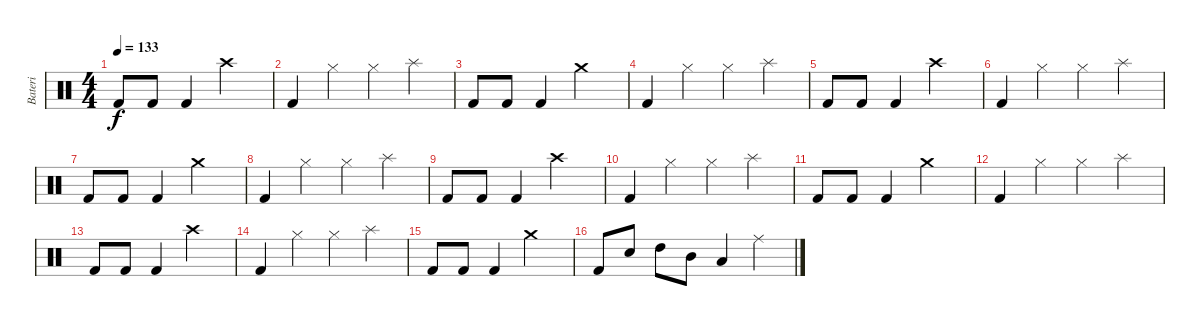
\track ("Bateri" "Bateri") {instrument percussion}
\staff {score}
\articulation defaults
\ts (4 4)
\tempo 133
\clef neutral
\ks c "Kick (hit) 2".8{dy f} "Kick (hit) 2".8 "Kick (hit) 2".4 "Crash high (hit)".2
|
"Kick (hit) 2".4 "Hi-Hat (closed)".4 "Hi-Hat (closed)".4 "Splash (hit)".4 |
"Kick (hit) 2".8 "Kick (hit) 2".8 "Kick (hit) 2".4 "Crash medium (hit)".2 |
"Kick (hit) 2".4 "Hi-Hat (closed)".4 "Hi-Hat (closed)".4 "Splash (hit)".4 |
"Kick (hit) 2".8 "Kick (hit) 2".8 "Kick (hit) 2".4 "Crash high (hit)".2 |
"Kick (hit) 2".4 "Hi-Hat (closed)".4 "Hi-Hat (closed)".4 "Splash (hit)".4 |
"Kick (hit) 2".8 "Kick (hit) 2".8 "Kick (hit) 2".4 "Crash medium (hit)".2 |
"Kick (hit) 2".4 "Hi-Hat (closed)".4 "Hi-Hat (closed)".4 "Splash (hit)".4 |
"Kick (hit) 2".8 "Kick (hit) 2".8 "Kick (hit) 2".4 "Crash high (hit)".2 |
"Kick (hit) 2".4 "Hi-Hat (closed)".4 "Hi-Hat (closed)".4 "Splash (hit)".4 |
"Kick (hit) 2".8 "Kick (hit) 2".8 "Kick (hit) 2".4 "Crash medium (hit)".2 |
"Kick (hit) 2".4 "Hi-Hat (closed)".4 "Hi-Hat (closed)".4 "Splash (hit)".4 |
"Kick (hit) 2".8 "Kick (hit) 2".8 "Kick (hit) 2".4 "Crash high (hit)".2 |
"Kick (hit) 2".4 "Hi-Hat (closed)".4 "Hi-Hat (closed)".4 "Splash (hit)".4 |
"Kick (hit) 2".8 "Kick (hit) 2".8 "Kick (hit) 2".4 "Crash medium (hit)".2 |
"Kick (hit) 2".8 "Snare (hit) 2".8 "High Tom (hit)".8 "Mid Tom (hit)".8 "Low Tom (hit)".4 "Ride (middle)".4
